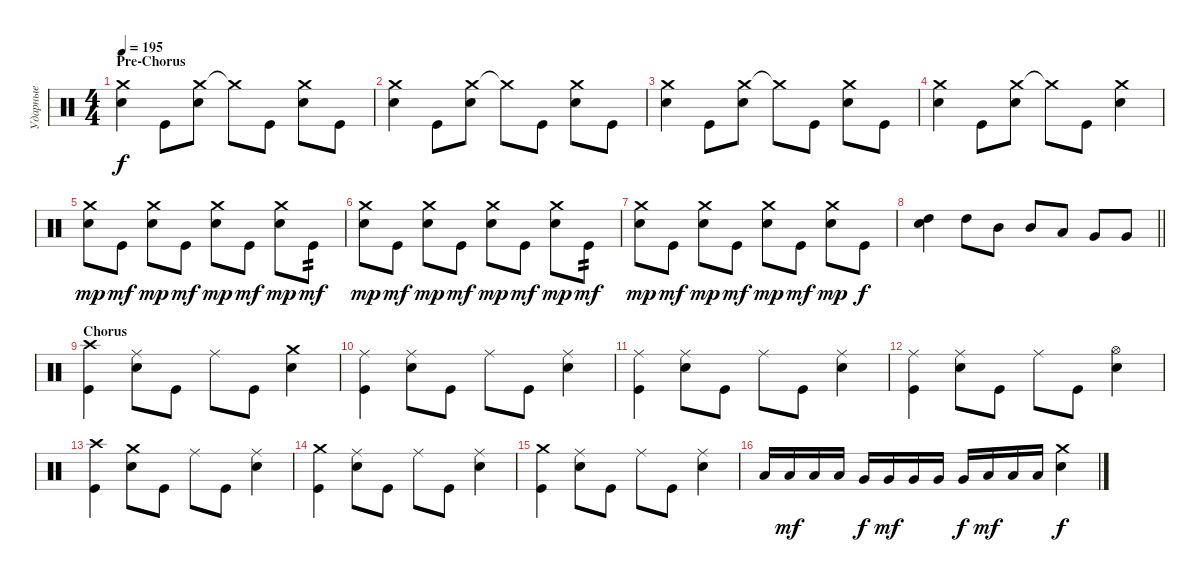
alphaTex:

\track ("Ударные" "Ударные") {instrument percussion}
\staff {score}
\articulation defaults
\ts (4 4)
\section ("" "Pre-Chorus")
\tempo 195
\clef neutral
\ks c
("Snare (hit) 2" "Crash medium (hit)").4{dy f} "Kick (hit)".8 ("Crash medium (hit)" "Snare (hit) 2").8 "Crash medium (hit)"{t}.8 "Kick (hit)".8 ("Snare (hit) 2" "Crash medium (hit)").8 "Kick (hit)".8 |
("Snare (hit) 2" "Crash medium (hit)").4 "Kick (hit)".8 ("Crash medium (hit)" "Snare (hit) 2").8 "Crash medium (hit)"{t}.8 "Kick (hit)".8 ("Snare (hit) 2" "Crash medium (hit)").8 "Kick (hit)".8 |
("Snare (hit) 2" "Crash medium (hit)").4 "Kick (hit)".8 ("Crash medium (hit)" "Snare (hit) 2").8 "Crash medium (hit)"{t}.8 "Kick (hit)".8 ("Snare (hit) 2" "Crash medium (hit)").8 "Kick (hit)".8 |
("Snare (hit) 2" "Crash medium (hit)").4 "Kick (hit)".8 ("Crash medium (hit)" "Snare (hit) 2").8 "Crash medium (hit)"{t}.8 "Kick (hit)".8 ("Snare (hit) 2" "Crash medium (hit)").4 |
("Snare (hit) 2" "Crash medium (hit)").8{dy mp} "Kick (hit)".8{dy mf} ("Snare (hit) 2" "Crash medium (hit)").8{dy mp} "Kick (hit)".8{dy mf} ("Snare (hit) 2" "Crash medium (hit)").8{dy mp} "Kick (hit)".8{dy mf} ("Snare (hit) 2" "Crash medium (hit)").8{dy mp} "Kick (hit)".8{tp 2 dy mf} |
("Snare (hit) 2" "Crash medium (hit)").8{dy mp} "Kick (hit)".8{dy mf} ("Snare (hit) 2" "Crash medium (hit)").8{dy mp} "Kick (hit)".8{dy mf} ("Snare (hit) 2" "Crash medium (hit)").8{dy mp} "Kick (hit)".8{dy mf} ("Snare (hit) 2" "Crash medium (hit)").8{dy mp} "Kick (hit)".8{tp 2 dy mf} |
("Snare (hit) 2" "Crash medium (hit)").8{dy mp} "Kick (hit)".8{dy mf} ("Snare (hit) 2" "Crash medium (hit)").8{dy mp} "Kick (hit)".8{dy mf} ("Snare (hit) 2" "Crash medium (hit)").8{dy mp} "Kick (hit)".8{dy mf} ("Snare (hit) 2" "Crash medium (hit)").8{dy mp} "Kick (hit)".8{dy f} |
\barLineRight lightlight
("Snare (hit) 2" "High Tom (hit)").4{bd 240} "High Tom (hit)".8 "Mid Tom (hit)".8 "Mid Tom (hit)".8 "Low Tom (hit)".8 "Very Low Tom (hit)".8 "Very Low Tom (hit)".8 |
\section ("" "Chorus")
("Kick (hit)" "Crash high (hit)").4 ("Snare (hit) 2" "Ride (middle)").8 "Kick (hit)".8 "Ride (middle)".8 "Kick (hit)".8 ("Snare (hit) 2" "Crash medium (hit)").4 |
("Kick (hit)" "Ride (middle)").4 ("Snare (hit) 2" "Ride (middle)").8 "Kick (hit)".8 "Ride (middle)".8 "Kick (hit)".8 ("Snare (hit) 2" "Ride (middle)").4 |
("Kick (hit)" "Ride (middle)").4 ("Snare (hit) 2" "Ride (middle)").8 "Kick (hit)".8 "Ride (middle)".8 "Kick (hit)".8 ("Snare (hit) 2" "Ride (middle)").4 |
("Kick (hit)" "Ride (middle)").4 ("Snare (hit) 2" "Ride (middle)").8 "Kick (hit)".8 "Ride (middle)".8 "Kick (hit)".8 ("Snare (hit) 2" "Hi-Hat (open)").4 |
("Kick (hit)" "Crash high (hit)").4 ("Snare (hit) 2" "Crash medium (hit)").8 "Kick (hit)".8 "Ride (middle)".8 "Kick (hit)".8 ("Snare (hit) 2" "Ride (middle)").4 |
("Kick (hit)" "Crash medium (hit)").4 ("Snare (hit) 2" "Ride (middle)").8 "Kick (hit)".8 "Ride (middle)".8 "Kick (hit)".8 ("Snare (hit) 2" "Ride (middle)").4 |
("Kick (hit)" "Crash medium (hit)").4 ("Snare (hit) 2" "Ride (middle)").8 "Kick (hit)".8 "Ride (middle)".8 "Kick (hit)".8 ("Snare (hit) 2" "Ride (middle)").4 |
"Low Tom (hit)".16 "Low Tom (hit)".16{dy mf} "Low Tom (hit)".16 "Low Tom (hit)".16 "Very Low Tom (hit)".16{dy f} "Very Low Tom (hit)".16{dy mf} "Very Low Tom (hit)".16 "Very Low Tom (hit)".16 "Very Low Tom (hit)".16{dy f} "Low Floor Tom (hit)".16{dy mf} "Low Floor Tom (hit)".16 "Low Floor Tom (hit)".16 ("Snare (hit) 2" "Crash medium (hit)").4{dy f}
